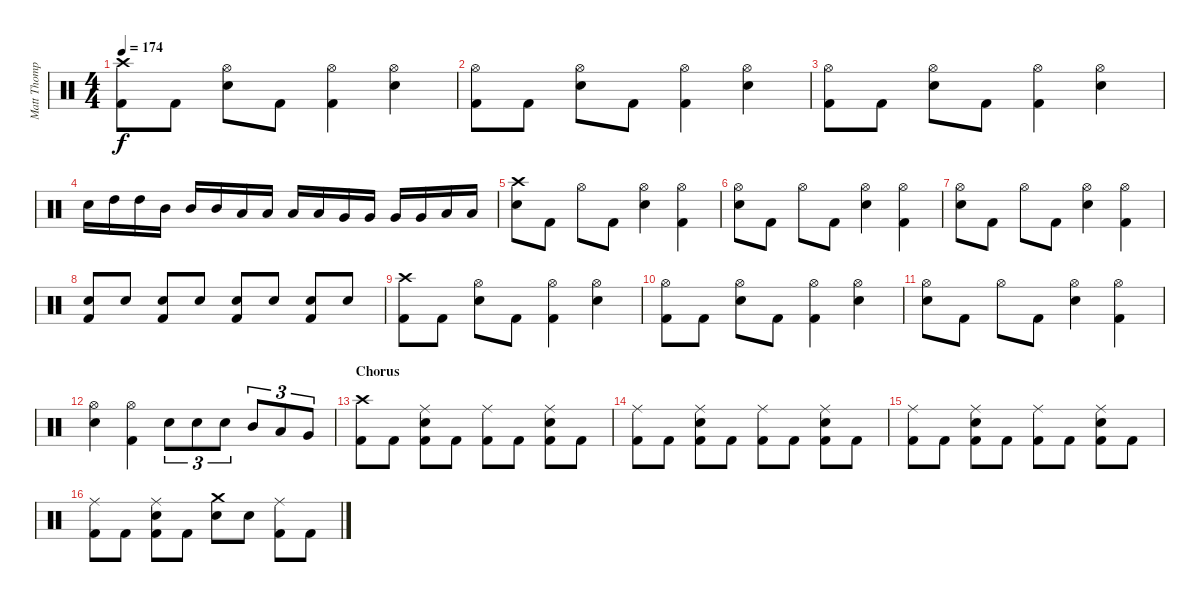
\track ("Matt Thompson" "Matt Thomp") {instrument percussion}
\staff {score}
\articulation defaults
\ts (4 4)
\tempo 174
\clef neutral
\ks c
("Crash high (hit)" "Kick (hit) 2").8{dy f} "Kick (hit) 2".8 ("Hi-Hat (open)" "Snare (hit) 2").8 "Kick (hit) 2".8 ("Hi-Hat (open)" "Kick (hit) 2").4 ("Hi-Hat (open)" "Snare (hit) 2").4 |
("Hi-Hat (open)" "Kick (hit) 2").8 "Kick (hit) 2".8 ("Hi-Hat (open)" "Snare (hit) 2").8 "Kick (hit) 2".8 ("Hi-Hat (open)" "Kick (hit) 2").4 ("Hi-Hat (open)" "Snare (hit) 2").4 |
("Hi-Hat (open)" "Kick (hit) 2").8 "Kick (hit) 2".8 ("Hi-Hat (open)" "Snare (hit) 2").8 "Kick (hit) 2".8 ("Hi-Hat (open)" "Kick (hit) 2").4 ("Hi-Hat (open)" "Snare (hit) 2").4 |
"Snare (hit) 2".16 "High Tom (hit)".16 "High Tom (hit)".16 "Mid Tom (hit)".16 "Mid Tom (hit)".16 "Mid Tom (hit)".16 "Low Tom (hit)".16 "Low Tom (hit)".16 "Low Tom (hit)".16 "Low Tom (hit)".16 "Very Low Tom (hit)".16 "Very Low Tom (hit)".16 "Very Low Tom (hit)".16 "Very Low Tom (hit)".16 "Low Floor Tom (hit)".16 "Low Floor Tom (hit)".16 |
("Crash high (hit)" "Snare (hit) 2").8 "Kick (hit) 2".8 "Hi-Hat (open)".8 "Kick (hit) 2".8 ("Hi-Hat (open)" "Snare (hit) 2").4 ("Hi-Hat (open)" "Kick (hit) 2").4 |
("Hi-Hat (open)" "Snare (hit) 2").8 "Kick (hit) 2".8 "Hi-Hat (open)".8 "Kick (hit) 2".8 ("Hi-Hat (open)" "Snare (hit) 2").4 ("Hi-Hat (open)" "Kick (hit) 2").4 |
("Hi-Hat (open)" "Snare (hit) 2").8 "Kick (hit) 2".8 "Hi-Hat (open)".8 "Kick (hit) 2".8 ("Hi-Hat (open)" "Snare (hit) 2").4 ("Hi-Hat (open)" "Kick (hit) 2").4 |
("Snare (hit) 2" "Kick (hit) 2").8 "Snare (hit) 2".8 ("Snare (hit) 2" "Kick (hit) 2").8 "Snare (hit) 2".8 ("Snare (hit) 2" "Kick (hit) 2").8 "Snare (hit) 2".8 ("Snare (hit) 2" "Kick (hit) 2").8 "Snare (hit) 2".8 |
("Crash high (hit)" "Kick (hit) 2").8 "Kick (hit) 2".8 ("Hi-Hat (open)" "Snare (hit) 2").8 "Kick (hit) 2".8 ("Hi-Hat (open)" "Kick (hit) 2").4 ("Hi-Hat (open)" "Snare (hit) 2").4 |
("Hi-Hat (open)" "Kick (hit) 2").8 "Kick (hit) 2".8 ("Hi-Hat (open)" "Snare (hit) 2").8 "Kick (hit) 2".8 ("Hi-Hat (open)" "Kick (hit) 2").4 ("Hi-Hat (open)" "Snare (hit) 2").4 |
("Hi-Hat (open)" "Snare (hit) 2").8 "Kick (hit) 2".8 "Hi-Hat (open)".8 "Kick (hit) 2".8 ("Hi-Hat (open)" "Snare (hit) 2").4 ("Hi-Hat (open)" "Kick (hit) 2").4 |
("Hi-Hat (open)" "Snare (hit) 2").4 ("Hi-Hat (open)" "Kick (hit) 2").4 "Snare (hit) 2".8{tu (3 2)} "Snare (hit) 2".8{tu (3 2)} "Snare (hit) 2".8{tu (3 2)} "Mid Tom (hit)".8{tu (3 2)} "Low Tom (hit)".8{tu (3 2)} "Very Low Tom (hit)".8{tu (3 2)} |
\section ("" "Chorus")
("Crash high (hit)" "Kick (hit) 2").8 "Kick (hit) 2".8 ("Ride (middle)" "Snare (hit) 2" "Kick (hit) 2").8 "Kick (hit) 2".8 ("Ride (middle)" "Kick (hit) 2").8 "Kick (hit) 2".8 ("Ride (middle)" "Snare (hit) 2" "Kick (hit) 2").8 "Kick (hit) 2".8 |
("Ride (middle)" "Kick (hit) 2").8 "Kick (hit) 2".8 ("Ride (middle)" "Snare (hit) 2" "Kick (hit) 2").8 "Kick (hit) 2".8 ("Ride (middle)" "Kick (hit) 2").8 "Kick (hit) 2".8 ("Ride (middle)" "Snare (hit) 2" "Kick (hit) 2").8 "Kick (hit) 2".8 |
("Ride (middle)" "Kick (hit) 2").8 "Kick (hit) 2".8 ("Ride (middle)" "Snare (hit) 2" "Kick (hit) 2").8 "Kick (hit) 2".8 ("Ride (middle)" "Kick (hit) 2").8 "Kick (hit) 2".8 ("Ride (middle)" "Snare (hit) 2" "Kick (hit) 2").8 "Kick (hit) 2".8 |
("Ride (middle)" "Kick (hit) 2").8 "Kick (hit) 2".8 ("Ride (middle)" "Snare (hit) 2" "Kick (hit) 2").8 "Kick (hit) 2".8 ("Crash medium (hit)" "Snare (hit) 2").8 "Snare (hit) 2".8 ("Ride (middle)" "Kick (hit) 2").8 "Kick (hit) 2".8
